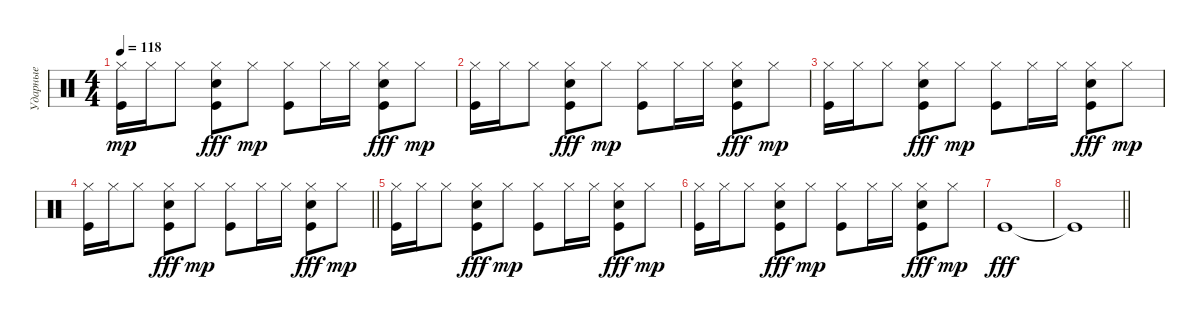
\track ("Ударные" "Ударные") {instrument percussion}
\staff {score}
\articulation defaults
\ts (4 4)
\tempo 118
\clef neutral
\ks c
("Kick (hit)" "Hi-Hat (closed)").16{dy mp} "Hi-Hat (closed)".16 "Hi-Hat (closed)".8 ("Kick (hit)" "Hi-Hat (closed)" "Electric Snare (hit)").8{dy fff} "Hi-Hat (closed)".8{dy mp} ("Kick (hit)" "Hi-Hat (closed)").8 "Hi-Hat (closed)".16 "Hi-Hat (closed)".16 ("Hi-Hat (closed)" "Kick (hit)" "Electric Snare (hit)").8{dy fff} "Hi-Hat (closed)".8{dy mp} |
("Kick (hit)" "Hi-Hat (closed)").16 "Hi-Hat (closed)".16 "Hi-Hat (closed)".8 ("Kick (hit)" "Hi-Hat (closed)" "Electric Snare (hit)").8{dy fff} "Hi-Hat (closed)".8{dy mp} ("Kick (hit)" "Hi-Hat (closed)").8 "Hi-Hat (closed)".16 "Hi-Hat (closed)".16 ("Hi-Hat (closed)" "Kick (hit)" "Electric Snare (hit)").8{dy fff} "Hi-Hat (closed)".8{dy mp} |
("Kick (hit)" "Hi-Hat (closed)").16 "Hi-Hat (closed)".16 "Hi-Hat (closed)".8 ("Kick (hit)" "Hi-Hat (closed)" "Electric Snare (hit)").8{dy fff} "Hi-Hat (closed)".8{dy mp} ("Kick (hit)" "Hi-Hat (closed)").8 "Hi-Hat (closed)".16 "Hi-Hat (closed)".16 ("Hi-Hat (closed)" "Kick (hit)" "Electric Snare (hit)").8{dy fff} "Hi-Hat (closed)".8{dy mp} |
\barLineRight lightlight
("Kick (hit)" "Hi-Hat (closed)").16 "Hi-Hat (closed)".16 "Hi-Hat (closed)".8 ("Kick (hit)" "Hi-Hat (closed)" "Electric Snare (hit)").8{dy fff} "Hi-Hat (closed)".8{dy mp} ("Kick (hit)" "Hi-Hat (closed)").8 "Hi-Hat (closed)".16 "Hi-Hat (closed)".16 ("Hi-Hat (closed)" "Kick (hit)" "Electric Snare (hit)").8{dy fff} "Hi-Hat (closed)".8{dy mp} |
("Kick (hit)" "Hi-Hat (closed)").16 "Hi-Hat (closed)".16 "Hi-Hat (closed)".8 ("Kick (hit)" "Hi-Hat (closed)" "Electric Snare (hit)").8{dy fff} "Hi-Hat (closed)".8{dy mp} ("Kick (hit)" "Hi-Hat (closed)").8 "Hi-Hat (closed)".16 "Hi-Hat (closed)".16 ("Hi-Hat (closed)" "Kick (hit)" "Electric Snare (hit)").8{dy fff} "Hi-Hat (closed)".8{dy mp} |
("Kick (hit)" "Hi-Hat (closed)").16 "Hi-Hat (closed)".16 "Hi-Hat (closed)".8 ("Kick (hit)" "Hi-Hat (closed)" "Electric Snare (hit)").8{dy fff} "Hi-Hat (closed)".8{dy mp} ("Kick (hit)" "Hi-Hat (closed)").8 "Hi-Hat (closed)".16 "Hi-Hat (closed)".16 ("Hi-Hat (closed)" "Kick (hit)" "Electric Snare (hit)").8{dy fff} "Hi-Hat (closed)".8{dy mp} |
"Kick (hit)".1{dy fff} |
\barLineRight lightlight "Kick (hit)"{t}.1
